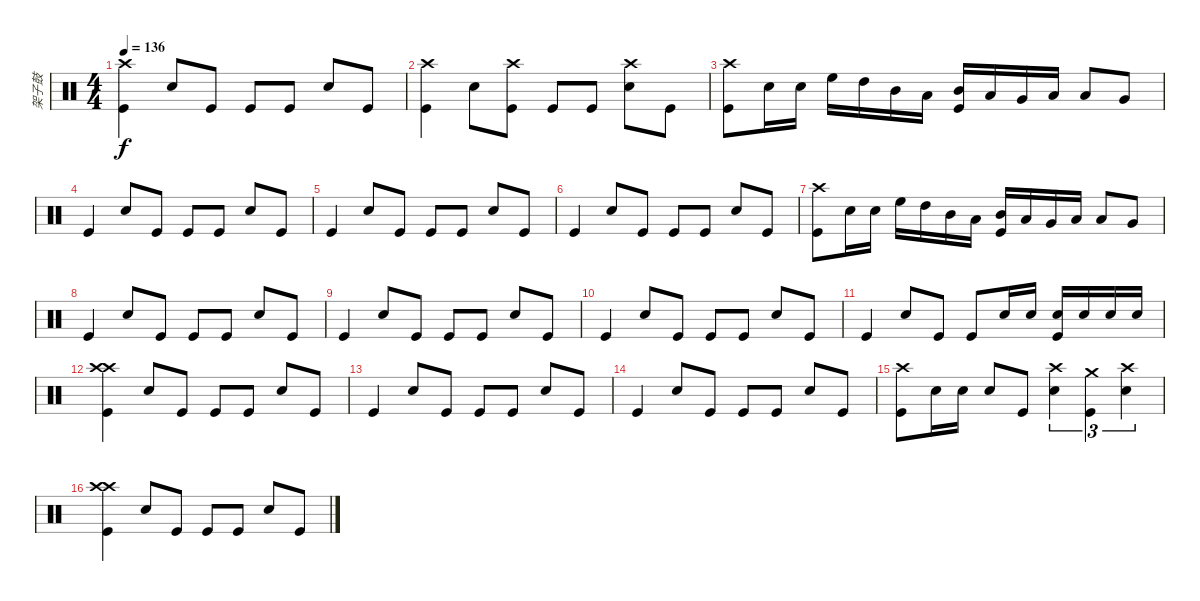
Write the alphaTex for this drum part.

\track ("架子鼓" "架子鼓") {instrument percussion}
\staff {score}
\articulation defaults
\ts (4 4)
\tempo 136
\clef neutral
\ks c
("Crash high (hit)" "Kick (hit)").4{dy f} "Snare (hit) 2".8 "Kick (hit)".8 "Kick (hit)".8 "Kick (hit)".8 "Snare (hit) 2".8 "Kick (hit)".8 |
("Crash high (hit)" "Kick (hit)").4 "Snare (hit) 2".8 ("Crash high (hit)" "Kick (hit)").8 "Kick (hit)".8 "Kick (hit)".8 ("Crash high (hit)" "Snare (hit) 2").8 "Kick (hit)".8 |
("Crash high (hit)" "Kick (hit)").8 "Snare (hit) 2".16 "Snare (hit) 2".16 "High Floor Tom (hit)".16 "High Tom (hit)".16 "Mid Tom (hit)".16 "Low Tom (hit)".16 ("Mid Tom (hit)" "Kick (hit)").16 "Low Tom (hit)".16 "Very Low Tom (hit)".16 "Low Floor Tom (hit)".16 "Low Tom (hit)".8 "Very Low Tom (hit)".8 |
"Kick (hit)".4 "Snare (hit) 2".8 "Kick (hit)".8 "Kick (hit)".8 "Kick (hit)".8 "Snare (hit) 2".8 "Kick (hit)".8 |
"Kick (hit)".4 "Snare (hit) 2".8 "Kick (hit)".8 "Kick (hit)".8 "Kick (hit)".8 "Snare (hit) 2".8 "Kick (hit)".8 |
"Kick (hit)".4 "Snare (hit) 2".8 "Kick (hit)".8 "Kick (hit)".8 "Kick (hit)".8 "Snare (hit) 2".8 "Kick (hit)".8 |
("Crash high (hit)" "Kick (hit)").8 "Snare (hit) 2".16 "Snare (hit) 2".16 "High Floor Tom (hit)".16 "High Tom (hit)".16 "Mid Tom (hit)".16 "Low Tom (hit)".16 ("Mid Tom (hit)" "Kick (hit)").16 "Low Tom (hit)".16 "Very Low Tom (hit)".16 "Low Floor Tom (hit)".16 "Low Tom (hit)".8 "Very Low Tom (hit)".8 |
"Kick (hit)".4 "Snare (hit) 2".8 "Kick (hit)".8 "Kick (hit)".8 "Kick (hit)".8 "Snare (hit) 2".8 "Kick (hit)".8 |
"Kick (hit)".4 "Snare (hit) 2".8 "Kick (hit)".8 "Kick (hit)".8 "Kick (hit)".8 "Snare (hit) 2".8 "Kick (hit)".8 |
"Kick (hit)".4 "Snare (hit) 2".8 "Kick (hit)".8 "Kick (hit)".8 "Kick (hit)".8 "Snare (hit) 2".8 "Kick (hit)".8 |
"Kick (hit)".4 "Snare (hit) 2".8 "Kick (hit)".8 "Kick (hit)".8 "Snare (hit) 2".16 "Snare (hit) 2".16 ("Snare (hit) 2" "Kick (hit)").16 "Snare (hit) 2".16 "Snare (hit) 2".16 "Snare (hit) 2".16 |
("Crash high (hit)" "Crash high (hit)" "Kick (hit)").4 "Snare (hit) 2".8 "Kick (hit)".8 "Kick (hit)".8 "Kick (hit)".8 "Snare (hit) 2".8 "Kick (hit)".8 |
"Kick (hit)".4 "Snare (hit) 2".8 "Kick (hit)".8 "Kick (hit)".8 "Kick (hit)".8 "Snare (hit) 2".8 "Kick (hit)".8 |
"Kick (hit)".4 "Snare (hit) 2".8 "Kick (hit)".8 "Kick (hit)".8 "Kick (hit)".8 "Snare (hit) 2".8 "Kick (hit)".8 |
("Crash high (hit)" "Kick (hit)").8 "Snare (hit) 2".16 "Snare (hit) 2".16 "Snare (hit) 2".8 "Kick (hit)".8 ("Crash high (hit)" "Snare (hit) 2").4{tu (3 2)} ("Crash medium (hit)" "Kick (hit)").4{tu (3 2)} ("Crash high (hit)" "Snare (hit) 2").4{tu (3 2)} |
("Crash high (hit)" "Crash high (hit)" "Kick (hit)").4 "Snare (hit) 2".8 "Kick (hit)".8 "Kick (hit)".8 "Kick (hit)".8 "Snare (hit) 2".8 "Kick (hit)".8
